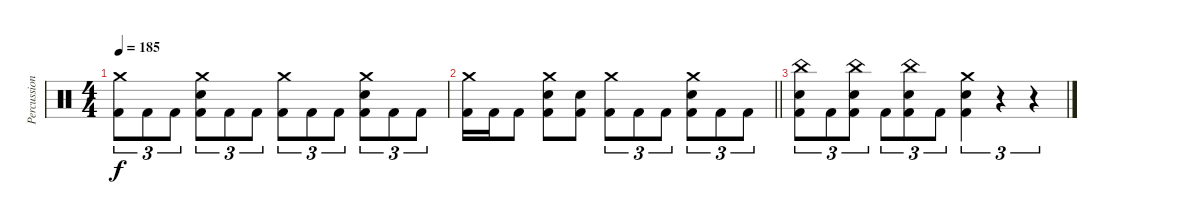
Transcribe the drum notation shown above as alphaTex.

\track ("Percussion" "Percussion") {instrument percussion}
\staff {score}
\articulation defaults
\ts (4 4)
\tempo 185
\clef neutral
\ks c
("Crash medium (hit)" "Kick (hit) 2").8{tu (3 2) dy f} "Kick (hit) 2".8{tu (3 2)} "Kick (hit) 2".8{tu (3 2)} ("Crash medium (hit)" "Electric Snare (hit)" "Kick (hit) 2").8{tu (3 2)} "Kick (hit) 2".8{tu (3 2)} "Kick (hit) 2".8{tu (3 2)} ("Crash medium (hit)" "Kick (hit) 2").8{tu (3 2)} "Kick (hit) 2".8{tu (3 2)} "Kick (hit) 2".8{tu (3 2)} ("Crash medium (hit)" "Electric Snare (hit)" "Kick (hit) 2").8{tu (3 2)} "Kick (hit) 2".8{tu (3 2)} "Kick (hit) 2".8{tu (3 2)} |
\barLineRight lightlight
("Crash medium (hit)" "Kick (hit) 2").16 "Kick (hit) 2".16 "Kick (hit) 2".8 ("Crash medium (hit)" "Electric Snare (hit)" "Kick (hit) 2").8 ("Electric Snare (hit)" "Kick (hit) 2").8 ("Crash medium (hit)" "Kick (hit) 2").8{tu (3 2)} "Kick (hit) 2".8{tu (3 2)} "Kick (hit) 2".8{tu (3 2)} ("Crash medium (hit)" "Electric Snare (hit)" "Kick (hit) 2").8{tu (3 2)} "Kick (hit) 2".8{tu (3 2)} "Kick (hit) 2".8{tu (3 2)} |
("China (hit)" "Electric Snare (hit)" "Kick (hit) 2").8{tu (3 2)} "Kick (hit) 2".8{tu (3 2)} ("China (hit)" "Electric Snare (hit)" "Kick (hit) 2").8{tu (3 2)} "Kick (hit) 2".8{tu (3 2)} ("China (hit)" "Electric Snare (hit)" "Kick (hit) 2").8{tu (3 2)} "Kick (hit) 2".8{tu (3 2)} ("Crash medium (hit)" "Electric Snare (hit)" "Kick (hit) 2").4{tu (3 2)} r.4{tu (3 2)} r.4{tu (3 2)}
